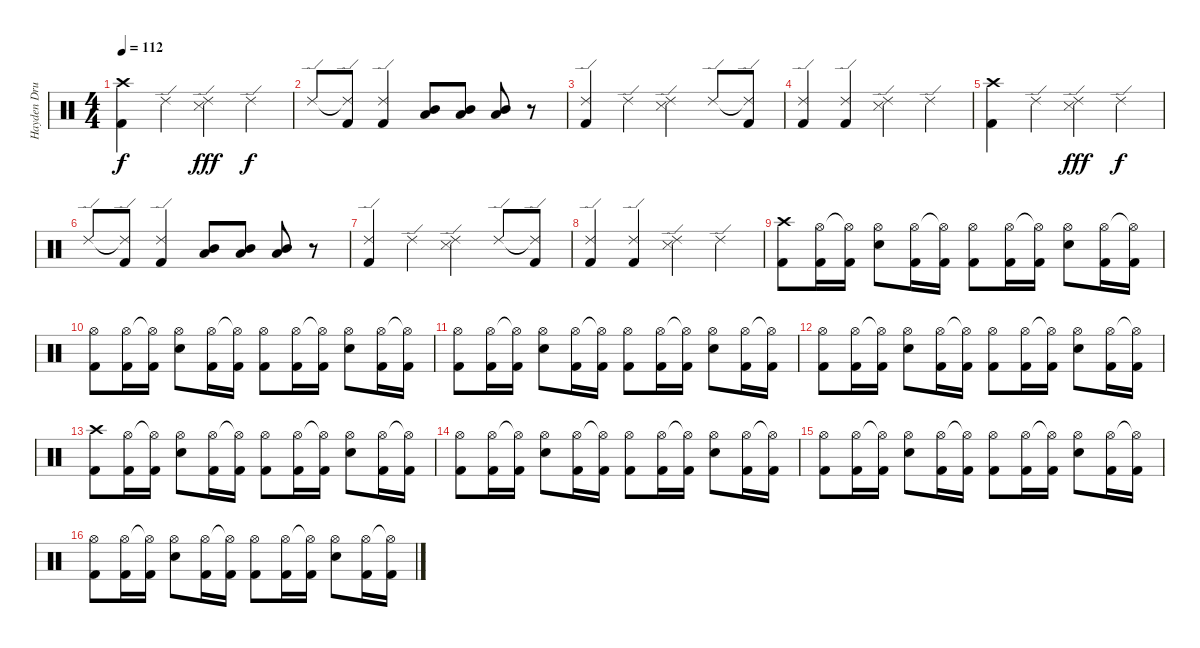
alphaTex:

\track ("Hayden Drums" "Hayden Dru") {instrument percussion}
\staff {score}
\articulation defaults
\ts (4 4)
\tempo 112
\clef neutral
\ks c
("Crash high (hit)" "Kick (hit) 2").4{dy f} "Ride (edge) 2".4 ("Ride (edge) 2" "Snare (side stick) 3").4{dy fff} "Ride (edge) 2".4{dy f} |
"Ride (edge) 2".8 ("Ride (edge) 2"{t} "Kick (hit) 2").8 ("Ride (edge) 2" "Kick (hit) 2").4 ("Low Tom (hit)" "Mid Tom (hit)").8 ("Low Tom (hit)" "Mid Tom (hit)").8 ("Low Tom (hit)" "Mid Tom (hit)").8 r.8 |
("Ride (edge) 2" "Kick (hit) 2").4 "Ride (edge) 2".4 ("Ride (edge) 2" "Snare (side stick) 3").4 "Ride (edge) 2".8 ("Ride (edge) 2"{t} "Kick (hit) 2").8 |
("Ride (edge) 2" "Kick (hit) 2").4 ("Ride (edge) 2" "Kick (hit) 2").4 ("Ride (edge) 2" "Snare (side stick) 3").4 "Ride (edge) 2".4 |
("Crash high (hit)" "Kick (hit) 2").4 "Ride (edge) 2".4 ("Ride (edge) 2" "Snare (side stick) 3").4{dy fff} "Ride (edge) 2".4{dy f} |
"Ride (edge) 2".8 ("Ride (edge) 2"{t} "Kick (hit) 2").8 ("Ride (edge) 2" "Kick (hit) 2").4 ("Low Tom (hit)" "Mid Tom (hit)").8 ("Low Tom (hit)" "Mid Tom (hit)").8 ("Low Tom (hit)" "Mid Tom (hit)").8 r.8 |
("Ride (edge) 2" "Kick (hit) 2").4 "Ride (edge) 2".4 ("Ride (edge) 2" "Snare (side stick) 3").4 "Ride (edge) 2".8 ("Ride (edge) 2"{t} "Kick (hit) 2").8 |
("Ride (edge) 2" "Kick (hit) 2").4 ("Ride (edge) 2" "Kick (hit) 2").4 ("Ride (edge) 2" "Snare (side stick) 3").4 "Ride (edge) 2".4 |
("Crash high (hit)" "Kick (hit) 2").8 ("Hi-Hat (open)" "Kick (hit) 2").16 ("Hi-Hat (open)"{t} "Kick (hit) 2").16 ("Hi-Hat (open)" "Electric Snare (hit)").8 ("Hi-Hat (open)" "Kick (hit) 2").16 ("Hi-Hat (open)"{t} "Kick (hit) 2").16 ("Hi-Hat (open)" "Kick (hit) 2").8 ("Hi-Hat (open)" "Kick (hit) 2").16 ("Hi-Hat (open)"{t} "Kick (hit) 2").16 ("Hi-Hat (open)" "Electric Snare (hit)").8 ("Hi-Hat (open)" "Kick (hit) 2").16 ("Hi-Hat (open)"{t} "Kick (hit) 2").16 |
("Hi-Hat (open)" "Kick (hit) 2").8 ("Hi-Hat (open)" "Kick (hit) 2").16 ("Hi-Hat (open)"{t} "Kick (hit) 2").16 ("Hi-Hat (open)" "Electric Snare (hit)").8 ("Hi-Hat (open)" "Kick (hit) 2").16 ("Hi-Hat (open)"{t} "Kick (hit) 2").16 ("Hi-Hat (open)" "Kick (hit) 2").8 ("Hi-Hat (open)" "Kick (hit) 2").16 ("Hi-Hat (open)"{t} "Kick (hit) 2").16 ("Hi-Hat (open)" "Electric Snare (hit)").8 ("Hi-Hat (open)" "Kick (hit) 2").16 ("Hi-Hat (open)"{t} "Kick (hit) 2").16 |
("Hi-Hat (open)" "Kick (hit) 2").8 ("Hi-Hat (open)" "Kick (hit) 2").16 ("Hi-Hat (open)"{t} "Kick (hit) 2").16 ("Hi-Hat (open)" "Electric Snare (hit)").8 ("Hi-Hat (open)" "Kick (hit) 2").16 ("Hi-Hat (open)"{t} "Kick (hit) 2").16 ("Hi-Hat (open)" "Kick (hit) 2").8 ("Hi-Hat (open)" "Kick (hit) 2").16 ("Hi-Hat (open)"{t} "Kick (hit) 2").16 ("Hi-Hat (open)" "Electric Snare (hit)").8 ("Hi-Hat (open)" "Kick (hit) 2").16 ("Hi-Hat (open)"{t} "Kick (hit) 2").16 |
("Hi-Hat (open)" "Kick (hit) 2").8 ("Hi-Hat (open)" "Kick (hit) 2").16 ("Hi-Hat (open)"{t} "Kick (hit) 2").16 ("Hi-Hat (open)" "Electric Snare (hit)").8 ("Hi-Hat (open)" "Kick (hit) 2").16 ("Hi-Hat (open)"{t} "Kick (hit) 2").16 ("Hi-Hat (open)" "Kick (hit) 2").8 ("Hi-Hat (open)" "Kick (hit) 2").16 ("Hi-Hat (open)"{t} "Kick (hit) 2").16 ("Hi-Hat (open)" "Electric Snare (hit)").8 ("Hi-Hat (open)" "Kick (hit) 2").16 ("Hi-Hat (open)"{t} "Kick (hit) 2").16 |
("Crash high (hit)" "Kick (hit) 2").8 ("Hi-Hat (open)" "Kick (hit) 2").16 ("Hi-Hat (open)"{t} "Kick (hit) 2").16 ("Hi-Hat (open)" "Electric Snare (hit)").8 ("Hi-Hat (open)" "Kick (hit) 2").16 ("Hi-Hat (open)"{t} "Kick (hit) 2").16 ("Hi-Hat (open)" "Kick (hit) 2").8 ("Hi-Hat (open)" "Kick (hit) 2").16 ("Hi-Hat (open)"{t} "Kick (hit) 2").16 ("Hi-Hat (open)" "Electric Snare (hit)").8 ("Hi-Hat (open)" "Kick (hit) 2").16 ("Hi-Hat (open)"{t} "Kick (hit) 2").16 |
("Hi-Hat (open)" "Kick (hit) 2").8 ("Hi-Hat (open)" "Kick (hit) 2").16 ("Hi-Hat (open)"{t} "Kick (hit) 2").16 ("Hi-Hat (open)" "Electric Snare (hit)").8 ("Hi-Hat (open)" "Kick (hit) 2").16 ("Hi-Hat (open)"{t} "Kick (hit) 2").16 ("Hi-Hat (open)" "Kick (hit) 2").8 ("Hi-Hat (open)" "Kick (hit) 2").16 ("Hi-Hat (open)"{t} "Kick (hit) 2").16 ("Hi-Hat (open)" "Electric Snare (hit)").8 ("Hi-Hat (open)" "Kick (hit) 2").16 ("Hi-Hat (open)"{t} "Kick (hit) 2").16 |
("Hi-Hat (open)" "Kick (hit) 2").8 ("Hi-Hat (open)" "Kick (hit) 2").16 ("Hi-Hat (open)"{t} "Kick (hit) 2").16 ("Hi-Hat (open)" "Electric Snare (hit)").8 ("Hi-Hat (open)" "Kick (hit) 2").16 ("Hi-Hat (open)"{t} "Kick (hit) 2").16 ("Hi-Hat (open)" "Kick (hit) 2").8 ("Hi-Hat (open)" "Kick (hit) 2").16 ("Hi-Hat (open)"{t} "Kick (hit) 2").16 ("Hi-Hat (open)" "Electric Snare (hit)").8 ("Hi-Hat (open)" "Kick (hit) 2").16 ("Hi-Hat (open)"{t} "Kick (hit) 2").16 |
("Hi-Hat (open)" "Kick (hit) 2").8 ("Hi-Hat (open)" "Kick (hit) 2").16 ("Hi-Hat (open)"{t} "Kick (hit) 2").16 ("Hi-Hat (open)" "Electric Snare (hit)").8 ("Hi-Hat (open)" "Kick (hit) 2").16 ("Hi-Hat (open)"{t} "Kick (hit) 2").16 ("Hi-Hat (open)" "Kick (hit) 2").8 ("Hi-Hat (open)" "Kick (hit) 2").16 ("Hi-Hat (open)"{t} "Kick (hit) 2").16 ("Hi-Hat (open)" "Electric Snare (hit)").8 ("Hi-Hat (open)" "Kick (hit) 2").16 ("Hi-Hat (open)"{t} "Kick (hit) 2").16
